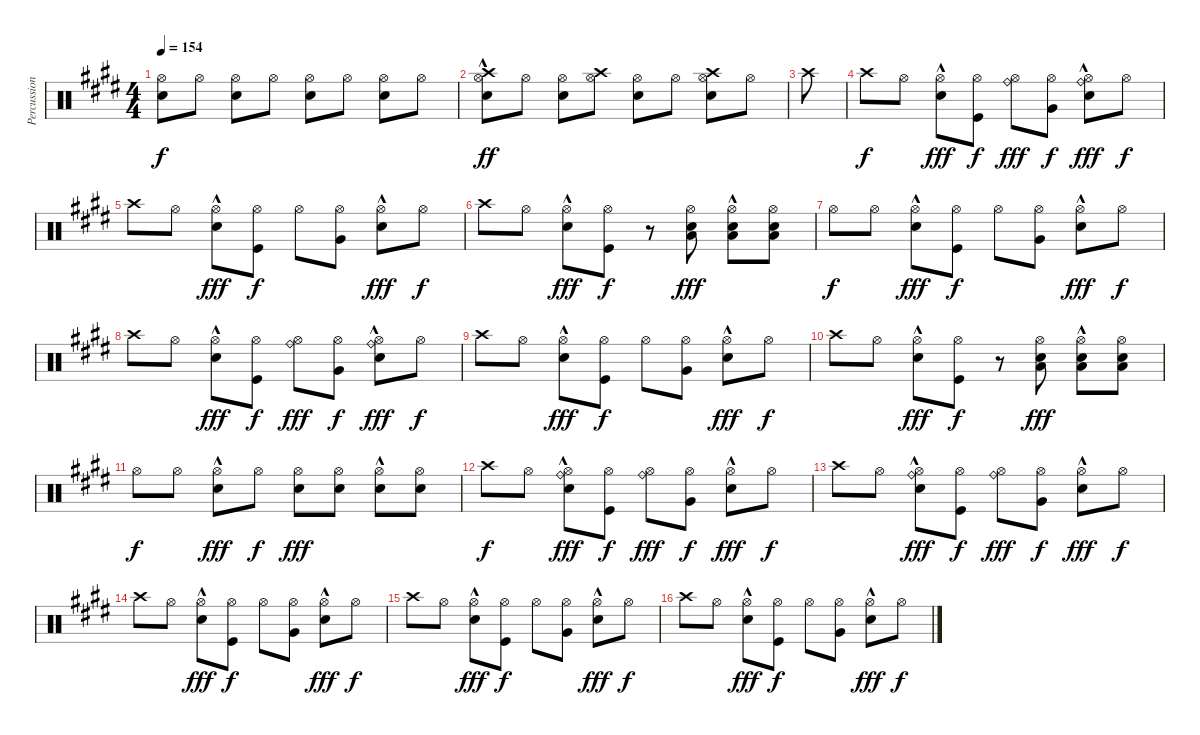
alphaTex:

\track ("Percussion (Derek Grant)" "Percussion") {instrument percussion}
\staff {score}
\articulation defaults
\ts (4 4)
\tempo 154
\clef neutral
\ks c#minor
("Hi-Hat (open)" "Snare (hit) 2").8{dy f} "Hi-Hat (open)".8 ("Hi-Hat (open)" "Snare (hit) 2").8 "Hi-Hat (open)".8 ("Hi-Hat (open)" "Snare (hit) 2").8 "Hi-Hat (open)".8 ("Hi-Hat (open)" "Snare (hit) 2").8 "Hi-Hat (open)".8 |
("Crash high (hit)"{hac} "Hi-Hat (open)" "Snare (hit) 2").8{dy ff} "Hi-Hat (open)".8 ("Hi-Hat (open)" "Snare (hit) 2").8 ("Crash high (hit)" "Hi-Hat (open)").8 ("Hi-Hat (open)" "Snare (hit) 2").8 "Hi-Hat (open)".8 ("Crash high (hit)" "Hi-Hat (open)" "Snare (hit) 2").8 "Hi-Hat (open)".8 |
"Crash high (hit)".8 |
"Crash high (hit)".8{dy f} "Hi-Hat (open)".8 ("Hi-Hat (open)" "Snare (hit) 2"{hac}).8{dy fff} ("Hi-Hat (open)" "Kick (hit)").8{dy f} ("Ride (bell)" "Hi-Hat (open)").8{dy fff} ("Hi-Hat (open)" "Very Low Tom (hit)").8{dy f} ("Ride (bell)" "Hi-Hat (open)" "Snare (hit) 2"{hac}).8{dy fff} "Hi-Hat (open)".8{dy f} |
"Crash high (hit)".8 "Hi-Hat (open)".8 ("Hi-Hat (open)" "Snare (hit) 2"{hac}).8{dy fff} ("Hi-Hat (open)" "Kick (hit)").8{dy f} "Hi-Hat (open)".8 ("Hi-Hat (open)" "Very Low Tom (hit)").8 ("Hi-Hat (open)" "Snare (hit) 2"{hac}).8{dy fff} "Hi-Hat (open)".8{dy f} |
"Crash high (hit)".8 "Hi-Hat (open)".8 ("Hi-Hat (open)" "Snare (hit) 2"{hac}).8{dy fff} ("Hi-Hat (open)" "Kick (hit)").8{dy f} r.8 ("Hi-Hat (open)" "Electric Snare (hit)" "Low Floor Tom (hit)").8{dy fff} ("Hi-Hat (open)" "Snare (hit) 2"{hac} "Low Floor Tom (hit)").8 ("Hi-Hat (open)" "Electric Snare (hit)" "Low Floor Tom (hit)").8 |
"Hi-Hat (open)".8{dy f} "Hi-Hat (open)".8 ("Hi-Hat (open)" "Snare (hit) 2"{hac}).8{dy fff} ("Hi-Hat (open)" "Kick (hit)").8{dy f} "Hi-Hat (open)".8 ("Hi-Hat (open)" "Very Low Tom (hit)").8 ("Hi-Hat (open)" "Snare (hit) 2"{hac}).8{dy fff} "Hi-Hat (open)".8{dy f} |
"Crash high (hit)".8 "Hi-Hat (open)".8 ("Hi-Hat (open)" "Snare (hit) 2"{hac}).8{dy fff} ("Hi-Hat (open)" "Kick (hit)").8{dy f} ("Ride (bell)" "Hi-Hat (open)").8{dy fff} ("Hi-Hat (open)" "Very Low Tom (hit)").8{dy f} ("Ride (bell)" "Hi-Hat (open)" "Snare (hit) 2"{hac}).8{dy fff} "Hi-Hat (open)".8{dy f} |
"Crash high (hit)".8 "Hi-Hat (open)".8 ("Hi-Hat (open)" "Snare (hit) 2"{hac}).8{dy fff} ("Hi-Hat (open)" "Kick (hit)").8{dy f} "Hi-Hat (open)".8 ("Hi-Hat (open)" "Very Low Tom (hit)").8 ("Hi-Hat (open)" "Snare (hit) 2"{hac}).8{dy fff} "Hi-Hat (open)".8{dy f} |
"Crash high (hit)".8 "Hi-Hat (open)".8 ("Hi-Hat (open)" "Snare (hit) 2"{hac}).8{dy fff} ("Hi-Hat (open)" "Kick (hit)").8{dy f} r.8 ("Hi-Hat (open)" "Electric Snare (hit)" "Low Floor Tom (hit)").8{dy fff} ("Hi-Hat (open)" "Snare (hit) 2"{hac} "Low Floor Tom (hit)").8 ("Hi-Hat (open)" "Electric Snare (hit)" "Low Floor Tom (hit)").8 |
"Hi-Hat (open)".8{dy f} "Hi-Hat (open)".8 ("Hi-Hat (open)" "Snare (hit) 2"{hac}).8{dy fff} "Hi-Hat (open)".8{dy f} ("Hi-Hat (open)" "Electric Snare (hit)").8{dy fff} ("Hi-Hat (open)" "Electric Snare (hit)").8 ("Hi-Hat (open)" "Snare (hit) 2"{hac}).8 ("Hi-Hat (open)" "Electric Snare (hit)").8 |
"Crash high (hit)".8{dy f} "Hi-Hat (open)".8 ("Ride (bell)" "Hi-Hat (open)" "Snare (hit) 2"{hac}).8{dy fff} ("Hi-Hat (open)" "Kick (hit)").8{dy f} ("Ride (bell)" "Hi-Hat (open)").8{dy fff} ("Hi-Hat (open)" "Very Low Tom (hit)").8{dy f} ("Hi-Hat (open)" "Snare (hit) 2"{hac}).8{dy fff} "Hi-Hat (open)".8{dy f} |
"Crash high (hit)".8 "Hi-Hat (open)".8 ("Ride (bell)" "Hi-Hat (open)" "Snare (hit) 2"{hac}).8{dy fff} ("Hi-Hat (open)" "Kick (hit)").8{dy f} ("Ride (bell)" "Hi-Hat (open)").8{dy fff} ("Hi-Hat (open)" "Very Low Tom (hit)").8{dy f} ("Hi-Hat (open)" "Snare (hit) 2"{hac}).8{dy fff} "Hi-Hat (open)".8{dy f} |
"Crash high (hit)".8 "Hi-Hat (open)".8 ("Hi-Hat (open)" "Snare (hit) 2"{hac}).8{dy fff} ("Hi-Hat (open)" "Kick (hit)").8{dy f} "Hi-Hat (open)".8 ("Hi-Hat (open)" "Very Low Tom (hit)").8 ("Hi-Hat (open)" "Snare (hit) 2"{hac}).8{dy fff} "Hi-Hat (open)".8{dy f} |
"Crash high (hit)".8 "Hi-Hat (open)".8 ("Hi-Hat (open)" "Snare (hit) 2"{hac}).8{dy fff} ("Hi-Hat (open)" "Kick (hit)").8{dy f} "Hi-Hat (open)".8 ("Hi-Hat (open)" "Very Low Tom (hit)").8 ("Hi-Hat (open)" "Snare (hit) 2"{hac}).8{dy fff} "Hi-Hat (open)".8{dy f} |
"Crash high (hit)".8 "Hi-Hat (open)".8 ("Hi-Hat (open)" "Snare (hit) 2"{hac}).8{dy fff} ("Hi-Hat (open)" "Kick (hit)").8{dy f} "Hi-Hat (open)".8 ("Hi-Hat (open)" "Very Low Tom (hit)").8 ("Hi-Hat (open)" "Snare (hit) 2"{hac}).8{dy fff} "Hi-Hat (open)".8{dy f}
